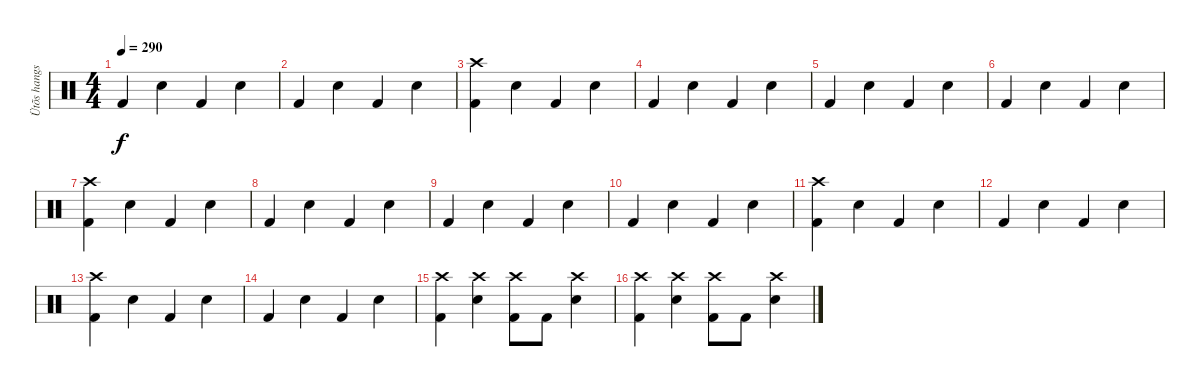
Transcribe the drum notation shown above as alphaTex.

\track ("Ütõs hangszer" "Ütõs hangs") {instrument percussion}
\staff {score}
\articulation defaults
\ts (4 4)
\tempo 290
\clef neutral
\ks c "Kick (hit) 2".4{dy f} "Snare (hit) 2".4 "Kick (hit) 2".4 "Snare (hit) 2".4
|
"Kick (hit) 2".4 "Snare (hit) 2".4 "Kick (hit) 2".4 "Snare (hit) 2".4 |
("Crash high (hit)" "Kick (hit) 2").4 "Snare (hit) 2".4 "Kick (hit) 2".4 "Snare (hit) 2".4 |
"Kick (hit) 2".4 "Snare (hit) 2".4 "Kick (hit) 2".4 "Snare (hit) 2".4 |
"Kick (hit) 2".4 "Snare (hit) 2".4 "Kick (hit) 2".4 "Snare (hit) 2".4 |
"Kick (hit) 2".4 "Snare (hit) 2".4 "Kick (hit) 2".4 "Snare (hit) 2".4 |
("Crash high (hit)" "Kick (hit) 2").4 "Snare (hit) 2".4 "Kick (hit) 2".4 "Snare (hit) 2".4 |
"Kick (hit) 2".4 "Snare (hit) 2".4 "Kick (hit) 2".4 "Snare (hit) 2".4 |
"Kick (hit) 2".4 "Snare (hit) 2".4 "Kick (hit) 2".4 "Snare (hit) 2".4 |
"Kick (hit) 2".4 "Snare (hit) 2".4 "Kick (hit) 2".4 "Snare (hit) 2".4 |
("Crash high (hit)" "Kick (hit) 2").4 "Snare (hit) 2".4 "Kick (hit) 2".4 "Snare (hit) 2".4 |
"Kick (hit) 2".4 "Snare (hit) 2".4 "Kick (hit) 2".4 "Snare (hit) 2".4 |
("Crash high (hit)" "Kick (hit) 2").4 "Snare (hit) 2".4 "Kick (hit) 2".4 "Snare (hit) 2".4 |
"Kick (hit) 2".4 "Snare (hit) 2".4 "Kick (hit) 2".4 "Snare (hit) 2".4 |
("Crash high (hit)" "Kick (hit) 2").4 ("Crash high (hit)" "Snare (hit) 2").4 ("Crash high (hit)" "Kick (hit) 2").8 "Kick (hit) 2".8 ("Crash high (hit)" "Snare (hit) 2").4 |
("Crash high (hit)" "Kick (hit) 2").4 ("Crash high (hit)" "Snare (hit) 2").4 ("Crash high (hit)" "Kick (hit) 2").8 "Kick (hit) 2".8 ("Crash high (hit)" "Snare (hit) 2").4
